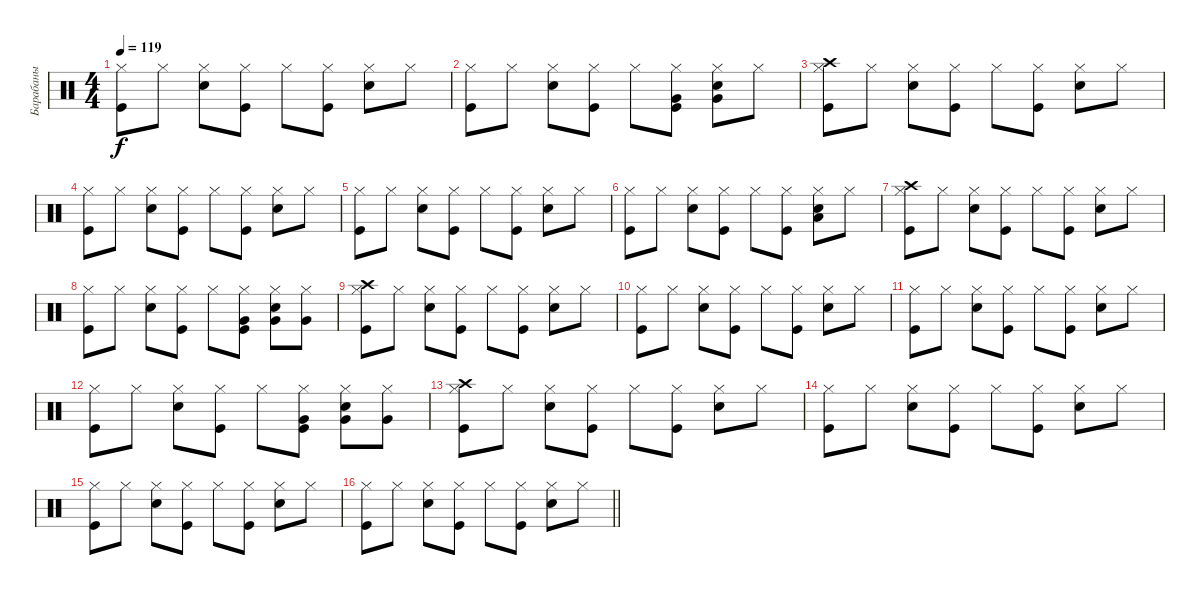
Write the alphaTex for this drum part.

\track ("Барабаны" "Барабаны") {instrument percussion}
\staff {score}
\articulation defaults
\ts (4 4)
\tempo 119
\clef neutral
\ks c
("Kick (hit)" "Hi-Hat (closed)").8{dy f} "Hi-Hat (closed)".8 ("Snare (hit) 2" "Hi-Hat (closed)").8 ("Kick (hit)" "Hi-Hat (closed)").8 "Hi-Hat (closed)".8 ("Kick (hit)" "Hi-Hat (closed)").8 ("Snare (hit) 2" "Hi-Hat (closed)").8 "Hi-Hat (closed)".8 |
("Kick (hit)" "Hi-Hat (closed)").8 "Hi-Hat (closed)".8 ("Snare (hit) 2" "Hi-Hat (closed)").8 ("Kick (hit)" "Hi-Hat (closed)").8 "Hi-Hat (closed)".8 ("Kick (hit)" "Hi-Hat (closed)" "Very Low Tom (hit)").8 ("Snare (hit) 2" "Hi-Hat (closed)" "Very Low Tom (hit)").8 "Hi-Hat (closed)".8 |
("Kick (hit)" "Hi-Hat (closed)" "Crash high (hit)").8 "Hi-Hat (closed)".8 ("Snare (hit) 2" "Hi-Hat (closed)").8 ("Kick (hit)" "Hi-Hat (closed)").8 "Hi-Hat (closed)".8 ("Kick (hit)" "Hi-Hat (closed)").8 ("Snare (hit) 2" "Hi-Hat (closed)").8 "Hi-Hat (closed)".8 |
("Kick (hit)" "Hi-Hat (closed)").8 "Hi-Hat (closed)".8 ("Snare (hit) 2" "Hi-Hat (closed)").8 ("Kick (hit)" "Hi-Hat (closed)").8 "Hi-Hat (closed)".8 ("Kick (hit)" "Hi-Hat (closed)").8 ("Snare (hit) 2" "Hi-Hat (closed)").8 "Hi-Hat (closed)".8 |
("Kick (hit)" "Hi-Hat (closed)").8 "Hi-Hat (closed)".8 ("Snare (hit) 2" "Hi-Hat (closed)").8 ("Kick (hit)" "Hi-Hat (closed)").8 "Hi-Hat (closed)".8 ("Kick (hit)" "Hi-Hat (closed)").8 ("Snare (hit) 2" "Hi-Hat (closed)").8 "Hi-Hat (closed)".8 |
("Kick (hit)" "Hi-Hat (closed)").8 "Hi-Hat (closed)".8 ("Snare (hit) 2" "Hi-Hat (closed)").8 ("Kick (hit)" "Hi-Hat (closed)").8 "Hi-Hat (closed)".8 ("Kick (hit)" "Hi-Hat (closed)").8 ("Snare (hit) 2" "Hi-Hat (closed)" "Low Tom (hit)").8 "Hi-Hat (closed)".8 |
("Kick (hit)" "Hi-Hat (closed)" "Crash high (hit)").8 "Hi-Hat (closed)".8 ("Snare (hit) 2" "Hi-Hat (closed)").8 ("Kick (hit)" "Hi-Hat (closed)").8 "Hi-Hat (closed)".8 ("Kick (hit)" "Hi-Hat (closed)").8 ("Snare (hit) 2" "Hi-Hat (closed)").8 "Hi-Hat (closed)".8 |
("Kick (hit)" "Hi-Hat (closed)").8 "Hi-Hat (closed)".8 ("Snare (hit) 2" "Hi-Hat (closed)").8 ("Kick (hit)" "Hi-Hat (closed)").8 "Hi-Hat (closed)".8 ("Kick (hit)" "Hi-Hat (closed)" "Very Low Tom (hit)").8 ("Snare (hit) 2" "Hi-Hat (closed)" "Very Low Tom (hit)").8 ("Hi-Hat (closed)" "Very Low Tom (hit)").8 |
("Kick (hit)" "Hi-Hat (closed)" "Crash high (hit)").8 "Hi-Hat (closed)".8 ("Snare (hit) 2" "Hi-Hat (closed)").8 ("Kick (hit)" "Hi-Hat (closed)").8 "Hi-Hat (closed)".8 ("Kick (hit)" "Hi-Hat (closed)").8 ("Snare (hit) 2" "Hi-Hat (closed)").8 "Hi-Hat (closed)".8 |
("Kick (hit)" "Hi-Hat (closed)").8 "Hi-Hat (closed)".8 ("Snare (hit) 2" "Hi-Hat (closed)").8 ("Kick (hit)" "Hi-Hat (closed)").8 "Hi-Hat (closed)".8 ("Kick (hit)" "Hi-Hat (closed)").8 ("Snare (hit) 2" "Hi-Hat (closed)").8 "Hi-Hat (closed)".8 |
("Kick (hit)" "Hi-Hat (closed)").8 "Hi-Hat (closed)".8 ("Snare (hit) 2" "Hi-Hat (closed)").8 ("Kick (hit)" "Hi-Hat (closed)").8 "Hi-Hat (closed)".8 ("Kick (hit)" "Hi-Hat (closed)").8 ("Snare (hit) 2" "Hi-Hat (closed)").8 "Hi-Hat (closed)".8 |
("Kick (hit)" "Hi-Hat (closed)").8 "Hi-Hat (closed)".8 ("Snare (hit) 2" "Hi-Hat (closed)").8 ("Kick (hit)" "Hi-Hat (closed)").8 "Hi-Hat (closed)".8 ("Kick (hit)" "Hi-Hat (closed)" "Very Low Tom (hit)").8 ("Snare (hit) 2" "Hi-Hat (closed)" "Very Low Tom (hit)").8 ("Hi-Hat (closed)" "Very Low Tom (hit)").8 |
("Kick (hit)" "Hi-Hat (closed)" "Crash high (hit)").8 "Hi-Hat (closed)".8 ("Snare (hit) 2" "Hi-Hat (closed)").8 ("Kick (hit)" "Hi-Hat (closed)").8 "Hi-Hat (closed)".8 ("Kick (hit)" "Hi-Hat (closed)").8 ("Snare (hit) 2" "Hi-Hat (closed)").8 "Hi-Hat (closed)".8 |
("Kick (hit)" "Hi-Hat (closed)").8 "Hi-Hat (closed)".8 ("Snare (hit) 2" "Hi-Hat (closed)").8 ("Kick (hit)" "Hi-Hat (closed)").8 "Hi-Hat (closed)".8 ("Kick (hit)" "Hi-Hat (closed)").8 ("Snare (hit) 2" "Hi-Hat (closed)").8 "Hi-Hat (closed)".8 |
("Kick (hit)" "Hi-Hat (closed)").8 "Hi-Hat (closed)".8 ("Snare (hit) 2" "Hi-Hat (closed)").8 ("Kick (hit)" "Hi-Hat (closed)").8 "Hi-Hat (closed)".8 ("Kick (hit)" "Hi-Hat (closed)").8 ("Snare (hit) 2" "Hi-Hat (closed)").8 "Hi-Hat (closed)".8 |
\barLineRight lightlight
("Kick (hit)" "Hi-Hat (closed)").8 "Hi-Hat (closed)".8 ("Snare (hit) 2" "Hi-Hat (closed)").8 ("Kick (hit)" "Hi-Hat (closed)").8 "Hi-Hat (closed)".8 ("Kick (hit)" "Hi-Hat (closed)").8 ("Snare (hit) 2" "Hi-Hat (closed)").8 "Hi-Hat (closed)".8
